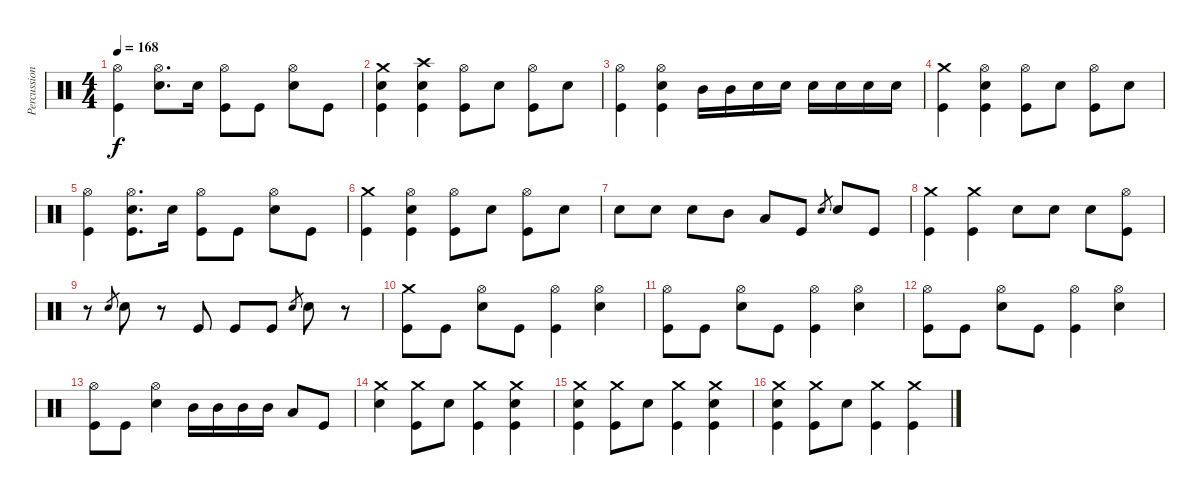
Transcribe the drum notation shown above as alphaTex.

\track ("Percussion" "Percussion") {instrument percussion}
\staff {score}
\articulation defaults
\ts (4 4)
\tempo 168
\clef neutral
\ks c
("Hi-Hat (open)" "Kick (hit)").4{dy f} ("Hi-Hat (open)" "Electric Snare (hit)").8{d} "Electric Snare (hit)".16 ("Hi-Hat (open)" "Kick (hit)").8 "Kick (hit)".8 ("Hi-Hat (open)" "Electric Snare (hit)").8 "Kick (hit)".8 |
("Crash medium (hit)" "Electric Snare (hit)" "Kick (hit)").4 ("Crash high (hit)" "Electric Snare (hit)" "Kick (hit)").4 ("Hi-Hat (open)" "Kick (hit)").8 "Electric Snare (hit)".8 ("Hi-Hat (open)" "Kick (hit)").8 "Electric Snare (hit)".8 |
("Hi-Hat (open)" "Kick (hit)").4 ("Hi-Hat (open)" "Electric Snare (hit)" "Kick (hit)").4 "Mid Tom (hit)".16 "Mid Tom (hit)".16 "Electric Snare (hit)".16 "Electric Snare (hit)".16 "Electric Snare (hit)".16 "Electric Snare (hit)".16 "Electric Snare (hit)".16 "Electric Snare (hit)".16 |
("Crash medium (hit)" "Kick (hit)").4 ("Hi-Hat (open)" "Electric Snare (hit)" "Kick (hit)").4 ("Hi-Hat (open)" "Kick (hit)").8 "Electric Snare (hit)".8 ("Hi-Hat (open)" "Kick (hit)").8 "Electric Snare (hit)".8 |
("Hi-Hat (open)" "Kick (hit)").4 ("Hi-Hat (open)" "Electric Snare (hit)" "Kick (hit)").8{d} "Electric Snare (hit)".16 ("Hi-Hat (open)" "Kick (hit)").8 "Kick (hit)".8 ("Hi-Hat (open)" "Electric Snare (hit)").8 "Kick (hit)".8 |
("Crash medium (hit)" "Kick (hit)").4 ("Hi-Hat (open)" "Electric Snare (hit)" "Kick (hit)").4 ("Hi-Hat (open)" "Kick (hit)").8 "Electric Snare (hit)".8 ("Hi-Hat (open)" "Kick (hit)").8 "Electric Snare (hit)".8 |
"Electric Snare (hit)".8 "Electric Snare (hit)".8 "Electric Snare (hit)".8 "Mid Tom (hit)".8 "Low Tom (hit)".8 "Kick (hit)".8 "Electric Snare (hit)".8{gr} "Electric Snare (hit)".8 "Kick (hit)".8 |
("Crash medium (hit)" "Kick (hit)").4 ("Crash medium (hit)" "Kick (hit)").4 "Electric Snare (hit)".8 "Electric Snare (hit)".8 "Electric Snare (hit)".8 ("Hi-Hat (open)" "Kick (hit)").8 |
r.8 "Electric Snare (hit)".8{gr} "Electric Snare (hit)".8 r.8 "Kick (hit)".8 "Kick (hit)".8 "Kick (hit)".8 "Electric Snare (hit)".8{gr} "Electric Snare (hit)".8 r.8 |
("Crash medium (hit)" "Kick (hit)").8 "Kick (hit)".8 ("Hi-Hat (open)" "Electric Snare (hit)").8 "Kick (hit)".8 ("Hi-Hat (open)" "Kick (hit)").4 ("Hi-Hat (open)" "Electric Snare (hit)").4 |
("Hi-Hat (open)" "Kick (hit)").8 "Kick (hit)".8 ("Hi-Hat (open)" "Electric Snare (hit)").8 "Kick (hit)".8 ("Hi-Hat (open)" "Kick (hit)").4 ("Hi-Hat (open)" "Electric Snare (hit)").4 |
("Hi-Hat (open)" "Kick (hit)").8 "Kick (hit)".8 ("Hi-Hat (open)" "Electric Snare (hit)").8 "Kick (hit)".8 ("Hi-Hat (open)" "Kick (hit)").4 ("Hi-Hat (open)" "Electric Snare (hit)").4 |
("Hi-Hat (open)" "Kick (hit)").8 "Kick (hit)".8 ("Hi-Hat (open)" "Electric Snare (hit)").4 "Mid Tom (hit)".16 "Mid Tom (hit)".16 "Mid Tom (hit)".16 "Mid Tom (hit)".16 "Low Tom (hit)".8 "Kick (hit)".8 |
("Crash medium (hit)" "Electric Snare (hit)").4 ("Crash medium (hit)" "Kick (hit)").8 "Electric Snare (hit)".8 ("Crash medium (hit)" "Kick (hit)").4 ("Crash medium (hit)" "Electric Snare (hit)" "Kick (hit)").4 |
("Crash medium (hit)" "Electric Snare (hit)" "Kick (hit)").4 ("Crash medium (hit)" "Kick (hit)").8 "Electric Snare (hit)".8 ("Crash medium (hit)" "Kick (hit)").4 ("Crash medium (hit)" "Electric Snare (hit)" "Kick (hit)").4 |
("Crash medium (hit)" "Electric Snare (hit)" "Kick (hit)").4 ("Crash medium (hit)" "Kick (hit)").8 "Electric Snare (hit)".8 ("Crash medium (hit)" "Kick (hit)").4 ("Crash medium (hit)" "Kick (hit)").4
